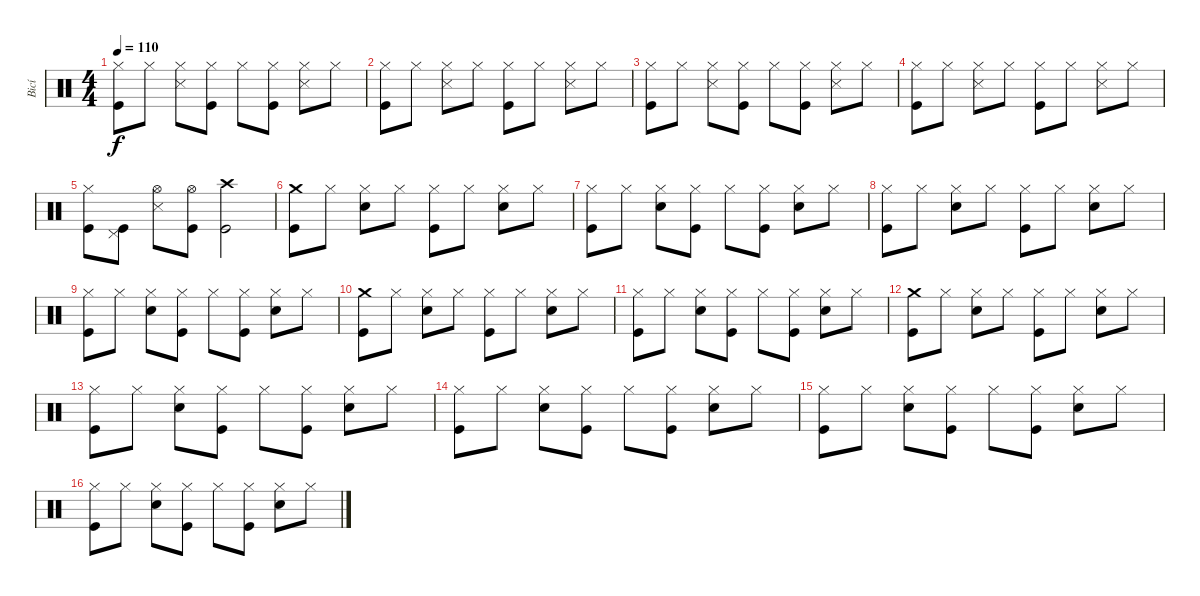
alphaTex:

\track ("Bicí" "Bicí") {instrument percussion}
\staff
\articulation defaults
\ts (4 4)
\tempo 110
\clef neutral
\ks c
("Hi-Hat (closed)" "Kick (hit)").8{dy f} "Hi-Hat (closed)".8 ("Hi-Hat (closed)" "Snare (side stick) 3").8 ("Hi-Hat (closed)" "Kick (hit)").8 "Hi-Hat (closed)".8 ("Hi-Hat (closed)" "Kick (hit)").8 ("Hi-Hat (closed)" "Snare (side stick) 3").8 "Hi-Hat (closed)".8 |
("Hi-Hat (closed)" "Kick (hit)").8 "Hi-Hat (closed)".8 ("Hi-Hat (closed)" "Snare (side stick) 3").8 "Hi-Hat (closed)".8 ("Hi-Hat (closed)" "Kick (hit)").8 "Hi-Hat (closed)".8 ("Hi-Hat (closed)" "Snare (side stick) 3").8 "Hi-Hat (closed)".8 |
("Hi-Hat (closed)" "Kick (hit)").8 "Hi-Hat (closed)".8 ("Hi-Hat (closed)" "Snare (side stick) 3").8 ("Hi-Hat (closed)" "Kick (hit)").8 "Hi-Hat (closed)".8 ("Hi-Hat (closed)" "Kick (hit)").8 ("Hi-Hat (closed)" "Snare (side stick) 3").8 "Hi-Hat (closed)".8 |
("Hi-Hat (closed)" "Kick (hit)").8 "Hi-Hat (closed)".8 ("Hi-Hat (closed)" "Snare (side stick) 3").8 "Hi-Hat (closed)".8 ("Hi-Hat (closed)" "Kick (hit)").8 "Hi-Hat (closed)".8 ("Hi-Hat (closed)" "Snare (side stick) 3").8 "Hi-Hat (closed)".8 |
("Hi-Hat (closed)" "Kick (hit)").8 ("Pedal Hi-Hat (hit)" "Kick (hit)").8 ("Hi-Hat (open)" "Snare (side stick) 3").8 ("Hi-Hat (open)" "Kick (hit)").8 ("Crash high (hit)" "Kick (hit)").2 |
("Crash medium (hit)" "Kick (hit)").8 "Hi-Hat (closed)".8 ("Hi-Hat (closed)" "Snare (hit) 2").8 "Hi-Hat (closed)".8 ("Hi-Hat (closed)" "Kick (hit)").8 "Hi-Hat (closed)".8 ("Hi-Hat (closed)" "Snare (hit) 2").8 "Hi-Hat (closed)".8 |
("Hi-Hat (closed)" "Kick (hit)").8 "Hi-Hat (closed)".8 ("Hi-Hat (closed)" "Snare (hit) 2").8 ("Hi-Hat (closed)" "Kick (hit)").8 "Hi-Hat (closed)".8 ("Hi-Hat (closed)" "Kick (hit)").8 ("Hi-Hat (closed)" "Snare (hit) 2").8 "Hi-Hat (closed)".8 |
("Hi-Hat (closed)" "Kick (hit)").8 "Hi-Hat (closed)".8 ("Hi-Hat (closed)" "Snare (hit) 2").8 "Hi-Hat (closed)".8 ("Hi-Hat (closed)" "Kick (hit)").8 "Hi-Hat (closed)".8 ("Hi-Hat (closed)" "Snare (hit) 2").8 "Hi-Hat (closed)".8 |
("Hi-Hat (closed)" "Kick (hit)").8 "Hi-Hat (closed)".8 ("Hi-Hat (closed)" "Snare (hit) 2").8 ("Hi-Hat (closed)" "Kick (hit)").8 "Hi-Hat (closed)".8 ("Hi-Hat (closed)" "Kick (hit)").8 ("Hi-Hat (closed)" "Snare (hit) 2").8 "Hi-Hat (closed)".8 |
("Crash medium (hit)" "Kick (hit)").8 "Hi-Hat (closed)".8 ("Hi-Hat (closed)" "Snare (hit) 2").8 "Hi-Hat (closed)".8 ("Hi-Hat (closed)" "Kick (hit)").8 "Hi-Hat (closed)".8 ("Hi-Hat (closed)" "Snare (hit) 2").8 "Hi-Hat (closed)".8 |
("Hi-Hat (closed)" "Kick (hit)").8 "Hi-Hat (closed)".8 ("Hi-Hat (closed)" "Snare (hit) 2").8 ("Hi-Hat (closed)" "Kick (hit)").8 "Hi-Hat (closed)".8 ("Hi-Hat (closed)" "Kick (hit)").8 ("Hi-Hat (closed)" "Snare (hit) 2").8 "Hi-Hat (closed)".8 |
("Crash medium (hit)" "Kick (hit)").8 "Hi-Hat (closed)".8 ("Hi-Hat (closed)" "Snare (hit) 2").8 "Hi-Hat (closed)".8 ("Hi-Hat (closed)" "Kick (hit)").8 "Hi-Hat (closed)".8 ("Hi-Hat (closed)" "Snare (hit) 2").8 "Hi-Hat (closed)".8 |
("Hi-Hat (closed)" "Kick (hit)").8 "Hi-Hat (closed)".8 ("Hi-Hat (closed)" "Snare (hit) 2").8 ("Hi-Hat (closed)" "Kick (hit)").8 "Hi-Hat (closed)".8 ("Hi-Hat (closed)" "Kick (hit)").8 ("Hi-Hat (closed)" "Snare (hit) 2").8 "Hi-Hat (closed)".8 |
("Hi-Hat (closed)" "Kick (hit)").8 "Hi-Hat (closed)".8 ("Hi-Hat (closed)" "Snare (hit) 2").8 ("Hi-Hat (closed)" "Kick (hit)").8 "Hi-Hat (closed)".8 ("Hi-Hat (closed)" "Kick (hit)").8 ("Hi-Hat (closed)" "Snare (hit) 2").8 "Hi-Hat (closed)".8 |
("Hi-Hat (closed)" "Kick (hit)").8 "Hi-Hat (closed)".8 ("Hi-Hat (closed)" "Snare (hit) 2").8 ("Hi-Hat (closed)" "Kick (hit)").8 "Hi-Hat (closed)".8 ("Hi-Hat (closed)" "Kick (hit)").8 ("Hi-Hat (closed)" "Snare (hit) 2").8 "Hi-Hat (closed)".8 |
("Hi-Hat (closed)" "Kick (hit)").8 "Hi-Hat (closed)".8 ("Hi-Hat (closed)" "Snare (hit) 2").8 ("Hi-Hat (closed)" "Kick (hit)").8 "Hi-Hat (closed)".8 ("Hi-Hat (closed)" "Kick (hit)").8 ("Hi-Hat (closed)" "Snare (hit) 2").8 "Hi-Hat (closed)".8
